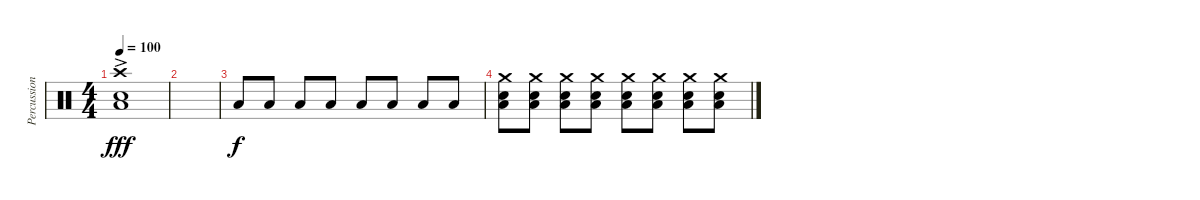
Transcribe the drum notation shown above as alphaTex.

\track ("Percussion" "Percussion") {instrument percussion}
\staff {score}
\articulation defaults
\ts (4 4)
\tempo 100
\clef neutral
\ks c
("Crash high (hit)" "Snare (hit) 2" "Low Floor Tom (hit)"{ac}).1{dy fff} |
|
"Low Floor Tom (hit)".8{dy f} "Low Floor Tom (hit)".8 "Low Floor Tom (hit)".8 "Low Floor Tom (hit)".8 "Low Floor Tom (hit)".8 "Low Floor Tom (hit)".8 "Low Floor Tom (hit)".8 "Low Floor Tom (hit)".8 |
("Crash medium (hit)" "Snare (hit) 2" "Low Floor Tom (hit)").8 ("Crash medium (hit)" "Snare (hit) 2" "Low Floor Tom (hit)").8 ("Crash medium (hit)" "Snare (hit) 2" "Low Floor Tom (hit)").8 ("Crash medium (hit)" "Snare (hit) 2" "Low Floor Tom (hit)").8 ("Crash medium (hit)" "Snare (hit) 2" "Low Floor Tom (hit)").8 ("Crash medium (hit)" "Snare (hit) 2" "Low Floor Tom (hit)").8 ("Crash medium (hit)" "Snare (hit) 2" "Low Floor Tom (hit)").8 ("Crash medium (hit)" "Snare (hit) 2" "Low Floor Tom (hit)").8
